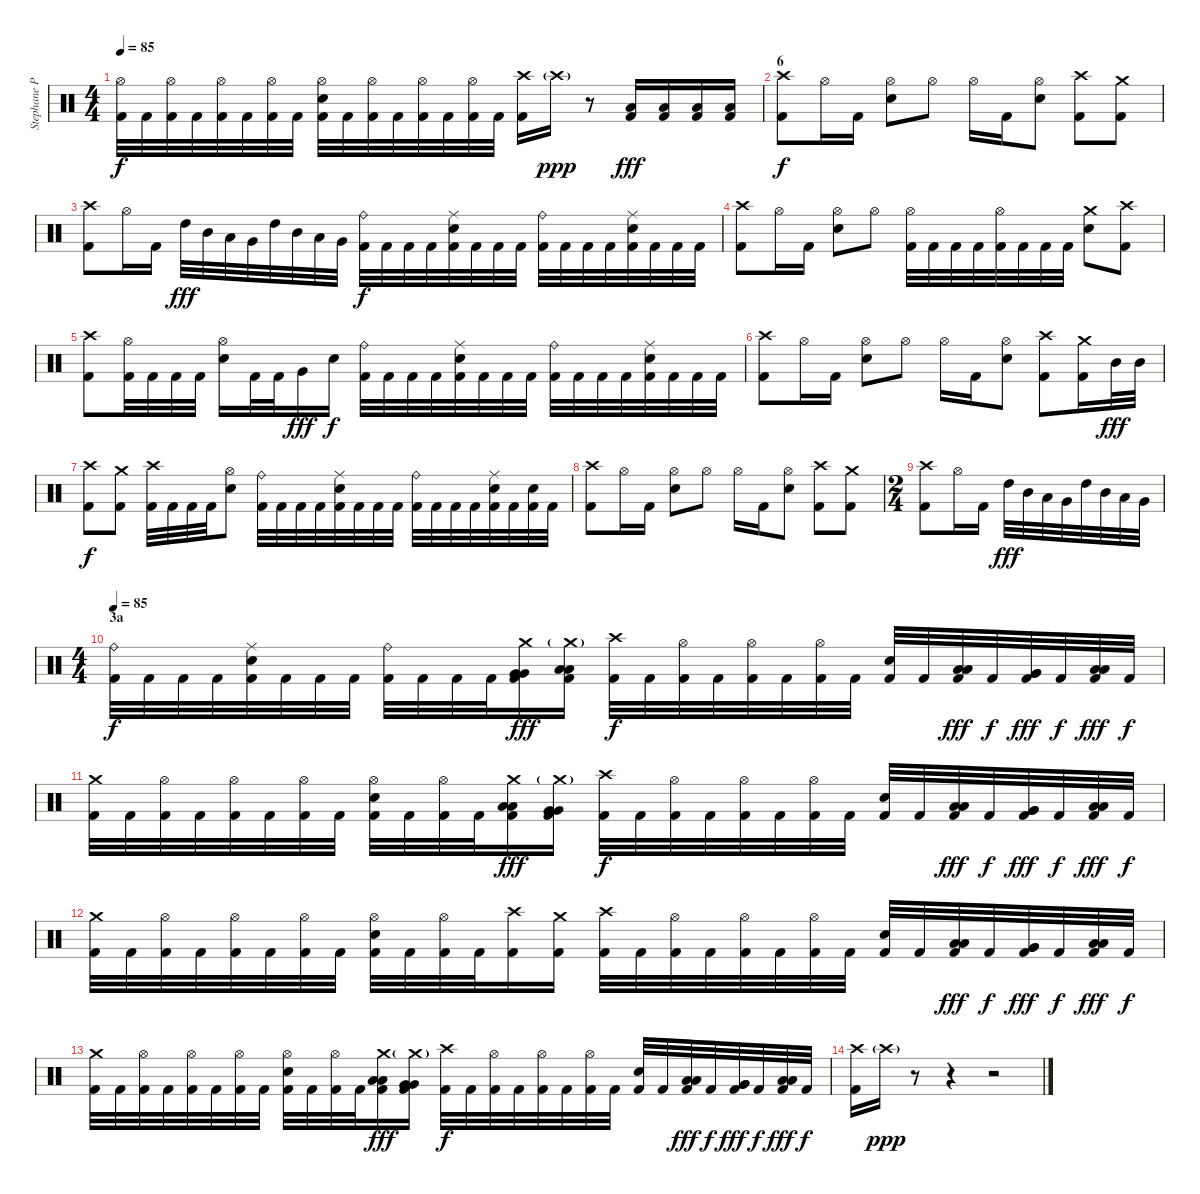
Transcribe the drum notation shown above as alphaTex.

\track ("Stephane Provencher " "Stephane P") {instrument percussion}
\staff {score}
\articulation defaults
\ts (4 4)
\tempo 85
\clef neutral
\ks c
("Hi-Hat (open)" "Kick (hit) 2").32{dy f} "Kick (hit) 2".32 ("Hi-Hat (open)" "Kick (hit) 2").32 "Kick (hit) 2".32 ("Hi-Hat (open)" "Kick (hit) 2").32 "Kick (hit) 2".32 ("Hi-Hat (open)" "Kick (hit) 2").32 "Kick (hit) 2".32 ("Hi-Hat (open)" "Electric Snare (hit)" "Kick (hit) 2").32 "Kick (hit) 2".32 ("Hi-Hat (open)" "Kick (hit) 2").32 "Kick (hit) 2".32 ("Hi-Hat (open)" "Kick (hit) 2").32 "Kick (hit) 2".32 ("Hi-Hat (open)" "Kick (hit) 2").32 "Kick (hit) 2".32 ("Crash high (hit)" "Kick (hit) 2").16 "Crash high (hit)"{g}.16{dy ppp} r.8{volume 0} ("Low Floor Tom (hit)" "Kick (hit) 2").16{dy fff volume 14} ("Low Floor Tom (hit)" "Kick (hit) 2").16 ("Low Floor Tom (hit)" "Kick (hit) 2").16 ("Low Floor Tom (hit)" "Kick (hit) 2").16 |
\section ("" "6")
("Crash high (hit)" "Kick (hit) 2").8{dy f} "Hi-Hat (open)".16 "Kick (hit) 2".16 ("Hi-Hat (open)" "Electric Snare (hit)").8 "Hi-Hat (open)".8 "Hi-Hat (open)".16 "Kick (hit) 2".16 ("Hi-Hat (open)" "Electric Snare (hit)").8 ("Crash high (hit)" "Kick (hit) 2").8 ("Crash medium (hit)" "Kick (hit) 2").8 |
("Crash high (hit)" "Kick (hit) 2").8 "Hi-Hat (open)".16 "Kick (hit) 2".16 "High Tom (hit)".32{dy fff} "Mid Tom (hit)".32 "Low Tom (hit)".32 "Very Low Tom (hit)".32 "High Tom (hit)".32 "Mid Tom (hit)".32 "Low Tom (hit)".32 "Very Low Tom (hit)".32 ("Ride (bell)" "Kick (hit) 2").32{dy f} "Kick (hit) 2".32 "Kick (hit) 2".32 "Kick (hit) 2".32 ("Ride (middle)" "Electric Snare (hit)" "Kick (hit) 2").32 "Kick (hit) 2".32 "Kick (hit) 2".32 "Kick (hit) 2".32 ("Ride (bell)" "Kick (hit) 2").32 "Kick (hit) 2".32 "Kick (hit) 2".32 "Kick (hit) 2".32 ("Ride (middle)" "Electric Snare (hit)" "Kick (hit) 2").32 "Kick (hit) 2".32 "Kick (hit) 2".32 "Kick (hit) 2".32 |
("Crash high (hit)" "Kick (hit) 2").8 "Hi-Hat (open)".16 "Kick (hit) 2".16 ("Hi-Hat (open)" "Electric Snare (hit)").8 "Hi-Hat (open)".8 ("Hi-Hat (open)" "Kick (hit) 2").32 "Kick (hit) 2".32 "Kick (hit) 2".32 "Kick (hit) 2".32 ("Hi-Hat (open)" "Kick (hit) 2").32 "Kick (hit) 2".32 "Kick (hit) 2".32 "Kick (hit) 2".32 ("Crash medium (hit)" "Electric Snare (hit)").8 ("Crash high (hit)" "Kick (hit) 2").8 |
("Crash high (hit)" "Kick (hit) 2").8 ("Hi-Hat (open)" "Kick (hit) 2").32 "Kick (hit) 2".32 "Kick (hit) 2".32 "Kick (hit) 2".32 ("Hi-Hat (open)" "Electric Snare (hit)").16 "Kick (hit) 2".32 "Kick (hit) 2".32 "Very Low Tom (hit)".16{dy fff} "Electric Snare (hit)".16{dy f} ("Ride (bell)" "Kick (hit) 2").32 "Kick (hit) 2".32 "Kick (hit) 2".32 "Kick (hit) 2".32 ("Ride (middle)" "Electric Snare (hit)" "Kick (hit) 2").32 "Kick (hit) 2".32 "Kick (hit) 2".32 "Kick (hit) 2".32 ("Ride (bell)" "Kick (hit) 2").32 "Kick (hit) 2".32 "Kick (hit) 2".32 "Kick (hit) 2".32 ("Ride (middle)" "Electric Snare (hit)" "Kick (hit) 2").32 "Kick (hit) 2".32 "Kick (hit) 2".32 "Kick (hit) 2".32 |
("Crash high (hit)" "Kick (hit) 2").8 "Hi-Hat (open)".16 "Kick (hit) 2".16 ("Hi-Hat (open)" "Electric Snare (hit)").8 "Hi-Hat (open)".8 "Hi-Hat (open)".16 "Kick (hit) 2".16 ("Hi-Hat (open)" "Electric Snare (hit)").8 ("Crash high (hit)" "Kick (hit) 2").8 ("Crash medium (hit)" "Kick (hit) 2").16 "Mid Tom (hit)".32{dy fff} "Mid Tom (hit)".32 |
("Crash high (hit)" "Kick (hit) 2").8{dy f} ("Crash medium (hit)" "Kick (hit) 2").8 ("Crash high (hit)" "Kick (hit) 2").32 "Kick (hit) 2".32 "Kick (hit) 2".32 "Kick (hit) 2".32 ("Hi-Hat (open)" "Electric Snare (hit)").8 ("Ride (bell)" "Kick (hit) 2").32 "Kick (hit) 2".32 "Kick (hit) 2".32 "Kick (hit) 2".32 ("Ride (middle)" "Electric Snare (hit)" "Kick (hit) 2").32 "Kick (hit) 2".32 "Kick (hit) 2".32 "Kick (hit) 2".32 ("Ride (bell)" "Kick (hit) 2").32 "Kick (hit) 2".32 "Kick (hit) 2".32 "Kick (hit) 2".32 ("Ride (middle)" "Electric Snare (hit)" "Kick (hit) 2").32 "Kick (hit) 2".32 ("Electric Snare (hit)" "Kick (hit) 2").32 "Kick (hit) 2".32 |
("Crash high (hit)" "Kick (hit) 2").8 "Hi-Hat (open)".16 "Kick (hit) 2".16 ("Hi-Hat (open)" "Electric Snare (hit)").8 "Hi-Hat (open)".8 "Hi-Hat (open)".16 "Kick (hit) 2".16 ("Hi-Hat (open)" "Electric Snare (hit)").8 ("Crash high (hit)" "Kick (hit) 2").8 ("Crash medium (hit)" "Kick (hit) 2").8 |
\ts (2 4)
("Crash high (hit)" "Kick (hit) 2").8 "Hi-Hat (open)".16 "Kick (hit) 2".16 "High Tom (hit)".32{dy fff} "Mid Tom (hit)".32 "Low Tom (hit)".32 "Very Low Tom (hit)".32 "High Tom (hit)".32 "Mid Tom (hit)".32 "Low Tom (hit)".32 "Very Low Tom (hit)".32 |
\ts (4 4)
\section ("" "3a")
\tempo 85
("Ride (bell)" "Kick (hit) 2").32{dy f volume 14} "Kick (hit) 2".32 "Kick (hit) 2".32 "Kick (hit) 2".32 ("Ride (middle)" "Electric Snare (hit)" "Kick (hit) 2").32 "Kick (hit) 2".32 "Kick (hit) 2".32 "Kick (hit) 2".32 ("Ride (bell)" "Kick (hit) 2").32 "Kick (hit) 2".32 "Kick (hit) 2".32 "Kick (hit) 2".32 ("Crash medium (hit)" "Very Low Tom (hit)" "Very Low Tom (hit)" "Kick (hit) 2").16{dy fff} ("Crash medium (hit)"{g} "Low Floor Tom (hit)" "Low Floor Tom (hit)" "Kick (hit) 2").16 ("Crash high (hit)" "Kick (hit) 2").32{dy f} "Kick (hit) 2".32 ("Hi-Hat (open)" "Kick (hit) 2").32 "Kick (hit) 2".32 ("Hi-Hat (open)" "Kick (hit) 2").32 "Kick (hit) 2".32 ("Hi-Hat (open)" "Kick (hit) 2").32 "Kick (hit) 2".32 ("Electric Snare (hit)" "Kick (hit) 2").32 "Kick (hit) 2".32 ("Low Tom (hit)" "Low Tom (hit)" "Kick (hit) 2").32{dy fff} "Kick (hit) 2".32{dy f} ("Very Low Tom (hit)" "Very Low Tom (hit)" "Kick (hit) 2").32{dy fff} "Kick (hit) 2".32{dy f} ("Low Floor Tom (hit)" "Low Floor Tom (hit)" "Kick (hit) 2").32{dy fff} "Kick (hit) 2".32{dy f} |
("Crash medium (hit)" "Kick (hit) 2").32 "Kick (hit) 2".32 ("Hi-Hat (open)" "Kick (hit) 2").32 "Kick (hit) 2".32 ("Hi-Hat (open)" "Kick (hit) 2").32 "Kick (hit) 2".32 ("Hi-Hat (open)" "Kick (hit) 2").32 "Kick (hit) 2".32 ("Hi-Hat (open)" "Electric Snare (hit)" "Kick (hit) 2").32 "Kick (hit) 2".32 ("Hi-Hat (open)" "Kick (hit) 2").32 "Kick (hit) 2".32 ("Crash medium (hit)" "Low Tom (hit)" "Low Tom (hit)" "Kick (hit) 2").16{dy fff} ("Crash medium (hit)"{g} "Very Low Tom (hit)" "Very Low Tom (hit)" "Kick (hit) 2").16 ("Crash high (hit)" "Kick (hit) 2").32{dy f} "Kick (hit) 2".32 ("Hi-Hat (open)" "Kick (hit) 2").32 "Kick (hit) 2".32 ("Hi-Hat (open)" "Kick (hit) 2").32 "Kick (hit) 2".32 ("Hi-Hat (open)" "Kick (hit) 2").32 "Kick (hit) 2".32 ("Electric Snare (hit)" "Kick (hit) 2").32 "Kick (hit) 2".32 ("Low Tom (hit)" "Low Tom (hit)" "Kick (hit) 2").32{dy fff} "Kick (hit) 2".32{dy f} ("Very Low Tom (hit)" "Very Low Tom (hit)" "Kick (hit) 2").32{dy fff} "Kick (hit) 2".32{dy f} ("Low Floor Tom (hit)" "Low Floor Tom (hit)" "Kick (hit) 2").32{dy fff} "Kick (hit) 2".32{dy f} |
("Crash medium (hit)" "Kick (hit) 2").32 "Kick (hit) 2".32 ("Hi-Hat (open)" "Kick (hit) 2").32 "Kick (hit) 2".32 ("Hi-Hat (open)" "Kick (hit) 2").32 "Kick (hit) 2".32 ("Hi-Hat (open)" "Kick (hit) 2").32 "Kick (hit) 2".32 ("Hi-Hat (open)" "Electric Snare (hit)" "Kick (hit) 2").32 "Kick (hit) 2".32 ("Hi-Hat (open)" "Kick (hit) 2").32 "Kick (hit) 2".32 ("Crash high (hit)" "Kick (hit) 2").16 ("Crash medium (hit)" "Kick (hit) 2").16 ("Crash high (hit)" "Kick (hit) 2").32 "Kick (hit) 2".32 ("Hi-Hat (open)" "Kick (hit) 2").32 "Kick (hit) 2".32 ("Hi-Hat (open)" "Kick (hit) 2").32 "Kick (hit) 2".32 ("Hi-Hat (open)" "Kick (hit) 2").32 "Kick (hit) 2".32 ("Electric Snare (hit)" "Kick (hit) 2").32 "Kick (hit) 2".32 ("Low Tom (hit)" "Low Tom (hit)" "Kick (hit) 2").32{dy fff} "Kick (hit) 2".32{dy f} ("Very Low Tom (hit)" "Very Low Tom (hit)" "Kick (hit) 2").32{dy fff} "Kick (hit) 2".32{dy f} ("Low Floor Tom (hit)" "Low Floor Tom (hit)" "Kick (hit) 2").32{dy fff} "Kick (hit) 2".32{dy f} |
("Crash medium (hit)" "Kick (hit) 2").32 "Kick (hit) 2".32 ("Hi-Hat (open)" "Kick (hit) 2").32 "Kick (hit) 2".32 ("Hi-Hat (open)" "Kick (hit) 2").32 "Kick (hit) 2".32 ("Hi-Hat (open)" "Kick (hit) 2").32 "Kick (hit) 2".32 ("Hi-Hat (open)" "Electric Snare (hit)" "Kick (hit) 2").32 "Kick (hit) 2".32 ("Hi-Hat (open)" "Kick (hit) 2").32 "Kick (hit) 2".32 ("Crash medium (hit)" "Low Tom (hit)" "Low Tom (hit)" "Kick (hit) 2").16{dy fff} ("Crash medium (hit)"{g} "Very Low Tom (hit)" "Very Low Tom (hit)" "Kick (hit) 2").16 ("Crash high (hit)" "Kick (hit) 2").32{dy f} "Kick (hit) 2".32 ("Hi-Hat (open)" "Kick (hit) 2").32 "Kick (hit) 2".32 ("Hi-Hat (open)" "Kick (hit) 2").32 "Kick (hit) 2".32 ("Hi-Hat (open)" "Kick (hit) 2").32 "Kick (hit) 2".32 ("Electric Snare (hit)" "Kick (hit) 2").32 "Kick (hit) 2".32 ("Low Tom (hit)" "Low Tom (hit)" "Kick (hit) 2").32{dy fff} "Kick (hit) 2".32{dy f} ("Very Low Tom (hit)" "Very Low Tom (hit)" "Kick (hit) 2").32{dy fff} "Kick (hit) 2".32{dy f} ("Low Floor Tom (hit)" "Low Floor Tom (hit)" "Kick (hit) 2").32{dy fff} "Kick (hit) 2".32{dy f} |
("Crash high (hit)" "Kick (hit) 2").16 "Crash high (hit)"{g}.16{dy ppp} r.8{volume 0} r.4 r.2
